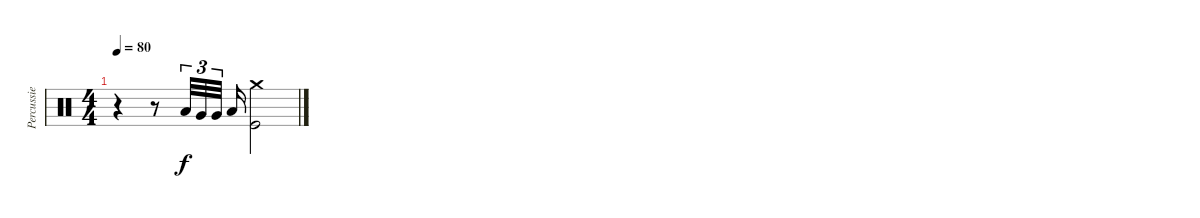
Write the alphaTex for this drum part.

\track ("Percussie" "Percussie") {instrument percussion}
\staff {score}
\articulation defaults
\ts (4 4)
\tempo 80
\clef neutral
\ks c
r.4{dy f} r.8 "Low Tom (hit)".32{tu (3 2)} "Very Low Tom (hit)".32{tu (3 2)} "Very Low Tom (hit)".32{tu (3 2)} "Low Floor Tom (hit)".16 ("Crash medium (hit)" "Kick (hit)").2
